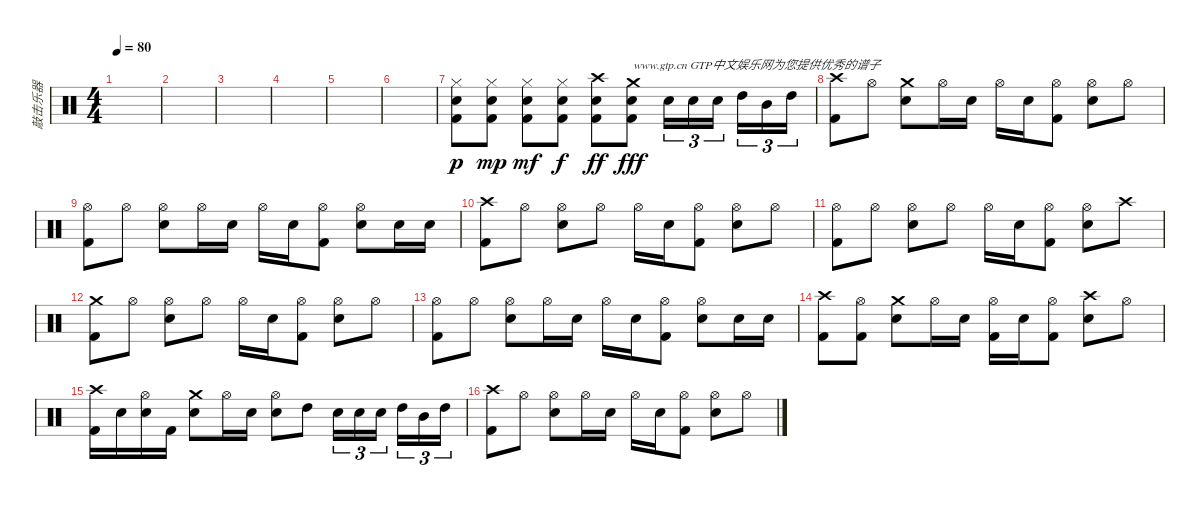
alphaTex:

\track ("敲击乐器" "敲击乐器") {instrument percussion}
\staff {score}
\articulation defaults
\ts (4 4)
\tempo 80
\clef neutral
\ks c
|
|
|
|
|
|
("Hi-Hat (closed)" "Electric Snare (hit)" "Kick (hit) 2").8{dy p} ("Hi-Hat (closed)" "Electric Snare (hit)" "Kick (hit) 2").8{dy mp} ("Hi-Hat (closed)" "Electric Snare (hit)" "Kick (hit) 2").8{dy mf} ("Hi-Hat (closed)" "Electric Snare (hit)" "Kick (hit) 2").8{dy f} ("Crash high (hit)" "Electric Snare (hit)" "Kick (hit) 2").8{dy ff} ("Crash medium (hit)" "Electric Snare (hit)" "Kick (hit) 2").8{txt "www.gtp.cn GTP中文娱乐网为您提供优秀的谱子" dy fff} "Electric Snare (hit)".16{tu (3 2)} "Electric Snare (hit)".16{tu (3 2)} "Electric Snare (hit)".16{tu (3 2) beam splitsecondary} "High Tom (hit)".16{tu (3 2)} "Mid Tom (hit)".16{tu (3 2)} "High Tom (hit)".16{tu (3 2)} |
("Crash high (hit)" "Kick (hit) 2").8 "Hi-Hat (open)".8 ("Crash medium (hit)" "Electric Snare (hit)").8 "Hi-Hat (open)".16 "Electric Snare (hit)".16 "Hi-Hat (open)".16 "Electric Snare (hit)".16 ("Hi-Hat (open)" "Kick (hit) 2").8 ("Hi-Hat (open)" "Electric Snare (hit)").8 "Hi-Hat (open)".8 |
("Hi-Hat (open)" "Kick (hit) 2").8 "Hi-Hat (open)".8 ("Hi-Hat (open)" "Electric Snare (hit)").8 "Hi-Hat (open)".16 "Electric Snare (hit)".16 "Hi-Hat (open)".16 "Electric Snare (hit)".16 ("Hi-Hat (open)" "Kick (hit) 2").8 ("Hi-Hat (open)" "Electric Snare (hit)").8 "Electric Snare (hit)".16 "Electric Snare (hit)".16 |
("Crash high (hit)" "Kick (hit) 2").8 "Hi-Hat (open)".8 ("Hi-Hat (open)" "Electric Snare (hit)").8 "Hi-Hat (open)".8 "Hi-Hat (open)".16 "Electric Snare (hit)".16 ("Hi-Hat (open)" "Kick (hit) 2").8 ("Hi-Hat (open)" "Electric Snare (hit)").8 "Hi-Hat (open)".8 |
("Hi-Hat (open)" "Kick (hit) 2").8 "Hi-Hat (open)".8 ("Hi-Hat (open)" "Electric Snare (hit)").8 "Hi-Hat (open)".8 "Hi-Hat (open)".16 "Electric Snare (hit)".16 ("Hi-Hat (open)" "Kick (hit) 2").8 ("Hi-Hat (open)" "Electric Snare (hit)").8 "Crash high (hit)".8 |
("Crash medium (hit)" "Kick (hit) 2").8 "Hi-Hat (open)".8 ("Hi-Hat (open)" "Electric Snare (hit)").8 "Hi-Hat (open)".8 "Hi-Hat (open)".16 "Electric Snare (hit)".16 ("Hi-Hat (open)" "Kick (hit) 2").8 ("Hi-Hat (open)" "Electric Snare (hit)").8 "Hi-Hat (open)".8 |
("Hi-Hat (open)" "Kick (hit) 2").8 "Hi-Hat (open)".8 ("Hi-Hat (open)" "Electric Snare (hit)").8 "Hi-Hat (open)".16 "Electric Snare (hit)".16 "Hi-Hat (open)".16 "Electric Snare (hit)".16 ("Hi-Hat (open)" "Kick (hit) 2").8 ("Hi-Hat (open)" "Electric Snare (hit)").8 "Electric Snare (hit)".16 "Electric Snare (hit)".16 |
("Crash high (hit)" "Kick (hit) 2").8 ("Hi-Hat (open)" "Kick (hit) 2").8 ("Crash medium (hit)" "Electric Snare (hit)").8 "Hi-Hat (open)".16 "Electric Snare (hit)".16 ("Hi-Hat (open)" "Kick (hit) 2").16 "Electric Snare (hit)".16 ("Hi-Hat (open)" "Kick (hit) 2").8 ("Crash high (hit)" "Electric Snare (hit)").8 "Hi-Hat (open)".8 |
("Crash high (hit)" "Kick (hit) 2").16 "Electric Snare (hit)".16 ("Hi-Hat (open)" "Electric Snare (hit)").16 "Kick (hit) 2".16 ("Crash medium (hit)" "Electric Snare (hit)").8 "Hi-Hat (open)".16 "Electric Snare (hit)".16 ("Hi-Hat (open)" "Electric Snare (hit)").8 "High Tom (hit)".8 "Electric Snare (hit)".16{tu (3 2)} "Electric Snare (hit)".16{tu (3 2)} "Electric Snare (hit)".16{tu (3 2) beam splitsecondary} "High Tom (hit)".16{tu (3 2)} "Mid Tom (hit)".16{tu (3 2)} "High Tom (hit)".16{tu (3 2)} |
("Crash high (hit)" "Kick (hit) 2").8 "Hi-Hat (open)".8 ("Hi-Hat (open)" "Electric Snare (hit)").8 "Hi-Hat (open)".16 "Electric Snare (hit)".16 "Hi-Hat (open)".16 "Electric Snare (hit)".16 ("Hi-Hat (open)" "Kick (hit) 2").8 ("Hi-Hat (open)" "Electric Snare (hit)").8 "Hi-Hat (open)".8
